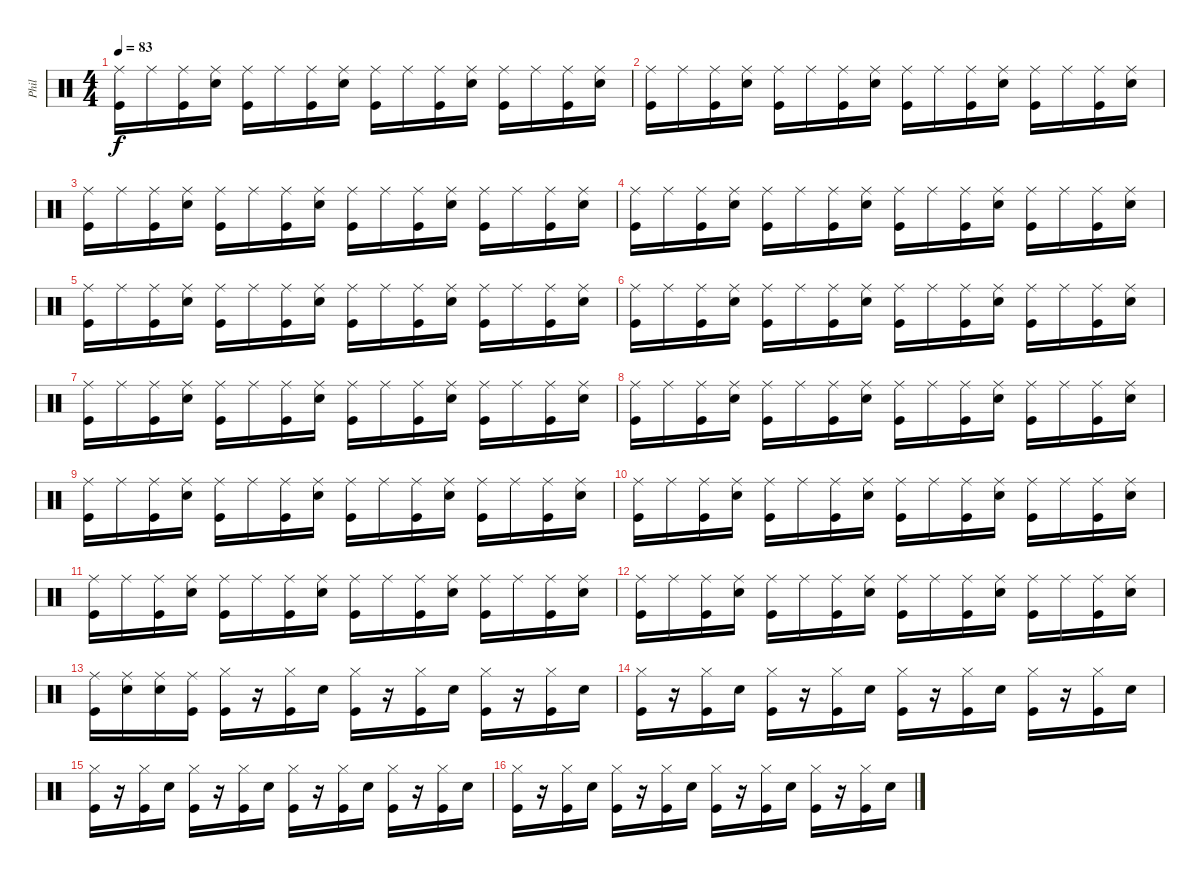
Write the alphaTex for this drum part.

\track ("Phil" "Phil") {instrument percussion}
\staff {score}
\articulation defaults
\ts (4 4)
\tempo 83
\clef neutral
\ks c
("Ride (middle)" "Kick (hit)").16{dy f} "Ride (middle)".16 ("Ride (middle)" "Kick (hit)").16 ("Ride (middle)" "Snare (hit) 2").16 ("Ride (middle)" "Kick (hit)").16 "Ride (middle)".16 ("Ride (middle)" "Kick (hit)").16 ("Ride (middle)" "Snare (hit) 2").16 ("Ride (middle)" "Kick (hit)").16 "Ride (middle)".16 ("Ride (middle)" "Kick (hit)").16 ("Ride (middle)" "Snare (hit) 2").16 ("Ride (middle)" "Kick (hit)").16 "Ride (middle)".16 ("Ride (middle)" "Kick (hit)").16 ("Ride (middle)" "Snare (hit) 2").16 |
("Ride (middle)" "Kick (hit)").16 "Ride (middle)".16 ("Ride (middle)" "Kick (hit)").16 ("Ride (middle)" "Snare (hit) 2").16 ("Ride (middle)" "Kick (hit)").16 "Ride (middle)".16 ("Ride (middle)" "Kick (hit)").16 ("Ride (middle)" "Snare (hit) 2").16 ("Ride (middle)" "Kick (hit)").16 "Ride (middle)".16 ("Ride (middle)" "Kick (hit)").16 ("Ride (middle)" "Snare (hit) 2").16 ("Ride (middle)" "Kick (hit)").16 "Ride (middle)".16 ("Ride (middle)" "Kick (hit)").16 ("Ride (middle)" "Snare (hit) 2").16 |
("Ride (middle)" "Kick (hit)").16 "Ride (middle)".16 ("Ride (middle)" "Kick (hit)").16 ("Ride (middle)" "Snare (hit) 2").16 ("Ride (middle)" "Kick (hit)").16 "Ride (middle)".16 ("Ride (middle)" "Kick (hit)").16 ("Ride (middle)" "Snare (hit) 2").16 ("Ride (middle)" "Kick (hit)").16 "Ride (middle)".16 ("Ride (middle)" "Kick (hit)").16 ("Ride (middle)" "Snare (hit) 2").16 ("Ride (middle)" "Kick (hit)").16 "Ride (middle)".16 ("Ride (middle)" "Kick (hit)").16 ("Ride (middle)" "Snare (hit) 2").16 |
("Ride (middle)" "Kick (hit)").16 "Ride (middle)".16 ("Ride (middle)" "Kick (hit)").16 ("Ride (middle)" "Snare (hit) 2").16 ("Ride (middle)" "Kick (hit)").16 "Ride (middle)".16 ("Ride (middle)" "Kick (hit)").16 ("Ride (middle)" "Snare (hit) 2").16 ("Ride (middle)" "Kick (hit)").16 "Ride (middle)".16 ("Ride (middle)" "Kick (hit)").16 ("Ride (middle)" "Snare (hit) 2").16 ("Ride (middle)" "Kick (hit)").16 "Ride (middle)".16 ("Ride (middle)" "Kick (hit)").16 ("Ride (middle)" "Snare (hit) 2").16 |
("Ride (middle)" "Kick (hit)").16 "Ride (middle)".16 ("Ride (middle)" "Kick (hit)").16 ("Ride (middle)" "Snare (hit) 2").16 ("Ride (middle)" "Kick (hit)").16 "Ride (middle)".16 ("Ride (middle)" "Kick (hit)").16 ("Ride (middle)" "Snare (hit) 2").16 ("Ride (middle)" "Kick (hit)").16 "Ride (middle)".16 ("Ride (middle)" "Kick (hit)").16 ("Ride (middle)" "Snare (hit) 2").16 ("Ride (middle)" "Kick (hit)").16 "Ride (middle)".16 ("Ride (middle)" "Kick (hit)").16 ("Ride (middle)" "Snare (hit) 2").16 |
("Ride (middle)" "Kick (hit)").16 "Ride (middle)".16 ("Ride (middle)" "Kick (hit)").16 ("Ride (middle)" "Snare (hit) 2").16 ("Ride (middle)" "Kick (hit)").16 "Ride (middle)".16 ("Ride (middle)" "Kick (hit)").16 ("Ride (middle)" "Snare (hit) 2").16 ("Ride (middle)" "Kick (hit)").16 "Ride (middle)".16 ("Ride (middle)" "Kick (hit)").16 ("Ride (middle)" "Snare (hit) 2").16 ("Ride (middle)" "Kick (hit)").16 "Ride (middle)".16 ("Ride (middle)" "Kick (hit)").16 ("Ride (middle)" "Snare (hit) 2").16 |
("Ride (middle)" "Kick (hit)").16 "Ride (middle)".16 ("Ride (middle)" "Kick (hit)").16 ("Ride (middle)" "Snare (hit) 2").16 ("Ride (middle)" "Kick (hit)").16 "Ride (middle)".16 ("Ride (middle)" "Kick (hit)").16 ("Ride (middle)" "Snare (hit) 2").16 ("Ride (middle)" "Kick (hit)").16 "Ride (middle)".16 ("Ride (middle)" "Kick (hit)").16 ("Ride (middle)" "Snare (hit) 2").16 ("Ride (middle)" "Kick (hit)").16 "Ride (middle)".16 ("Ride (middle)" "Kick (hit)").16 ("Ride (middle)" "Snare (hit) 2").16 |
("Ride (middle)" "Kick (hit)").16 "Ride (middle)".16 ("Ride (middle)" "Kick (hit)").16 ("Ride (middle)" "Snare (hit) 2").16 ("Ride (middle)" "Kick (hit)").16 "Ride (middle)".16 ("Ride (middle)" "Kick (hit)").16 ("Ride (middle)" "Snare (hit) 2").16 ("Ride (middle)" "Kick (hit)").16 "Ride (middle)".16 ("Ride (middle)" "Kick (hit)").16 ("Ride (middle)" "Snare (hit) 2").16 ("Ride (middle)" "Kick (hit)").16 "Ride (middle)".16 ("Ride (middle)" "Kick (hit)").16 ("Ride (middle)" "Snare (hit) 2").16 |
("Ride (middle)" "Kick (hit)").16 "Ride (middle)".16 ("Ride (middle)" "Kick (hit)").16 ("Ride (middle)" "Snare (hit) 2").16 ("Ride (middle)" "Kick (hit)").16 "Ride (middle)".16 ("Ride (middle)" "Kick (hit)").16 ("Ride (middle)" "Snare (hit) 2").16 ("Ride (middle)" "Kick (hit)").16 "Ride (middle)".16 ("Ride (middle)" "Kick (hit)").16 ("Ride (middle)" "Snare (hit) 2").16 ("Ride (middle)" "Kick (hit)").16 "Ride (middle)".16 ("Ride (middle)" "Kick (hit)").16 ("Ride (middle)" "Snare (hit) 2").16 |
("Ride (middle)" "Kick (hit)").16 "Ride (middle)".16 ("Ride (middle)" "Kick (hit)").16 ("Ride (middle)" "Snare (hit) 2").16 ("Ride (middle)" "Kick (hit)").16 "Ride (middle)".16 ("Ride (middle)" "Kick (hit)").16 ("Ride (middle)" "Snare (hit) 2").16 ("Ride (middle)" "Kick (hit)").16 "Ride (middle)".16 ("Ride (middle)" "Kick (hit)").16 ("Ride (middle)" "Snare (hit) 2").16 ("Ride (middle)" "Kick (hit)").16 "Ride (middle)".16 ("Ride (middle)" "Kick (hit)").16 ("Ride (middle)" "Snare (hit) 2").16 |
("Ride (middle)" "Kick (hit)").16 "Ride (middle)".16 ("Ride (middle)" "Kick (hit)").16 ("Ride (middle)" "Snare (hit) 2").16 ("Ride (middle)" "Kick (hit)").16 "Ride (middle)".16 ("Ride (middle)" "Kick (hit)").16 ("Ride (middle)" "Snare (hit) 2").16 ("Ride (middle)" "Kick (hit)").16 "Ride (middle)".16 ("Ride (middle)" "Kick (hit)").16 ("Ride (middle)" "Snare (hit) 2").16 ("Ride (middle)" "Kick (hit)").16 "Ride (middle)".16 ("Ride (middle)" "Kick (hit)").16 ("Ride (middle)" "Snare (hit) 2").16 |
("Ride (middle)" "Kick (hit)").16 "Ride (middle)".16 ("Ride (middle)" "Kick (hit)").16 ("Ride (middle)" "Snare (hit) 2").16 ("Ride (middle)" "Kick (hit)").16 "Ride (middle)".16 ("Ride (middle)" "Kick (hit)").16 ("Ride (middle)" "Snare (hit) 2").16 ("Ride (middle)" "Kick (hit)").16 "Ride (middle)".16 ("Ride (middle)" "Kick (hit)").16 ("Ride (middle)" "Snare (hit) 2").16 ("Ride (middle)" "Kick (hit)").16 "Ride (middle)".16 ("Ride (middle)" "Kick (hit)").16 ("Ride (middle)" "Snare (hit) 2").16 |
("Kick (hit)" "Ride (middle)").16 ("Snare (hit) 2" "Ride (middle)").16 ("Snare (hit) 2" "Ride (middle)").16 ("Kick (hit)" "Ride (middle)").16 ("Hi-Hat (closed)" "Kick (hit)").16 r.16 ("Hi-Hat (closed)" "Kick (hit)").16 "Snare (hit) 2".16 ("Hi-Hat (closed)" "Kick (hit)").16 r.16 ("Hi-Hat (closed)" "Kick (hit)").16 "Snare (hit) 2".16 ("Hi-Hat (closed)" "Kick (hit)").16 r.16 ("Hi-Hat (closed)" "Kick (hit)").16 "Snare (hit) 2".16 |
("Hi-Hat (closed)" "Kick (hit)").16 r.16 ("Hi-Hat (closed)" "Kick (hit)").16 "Snare (hit) 2".16 ("Hi-Hat (closed)" "Kick (hit)").16 r.16 ("Hi-Hat (closed)" "Kick (hit)").16 "Snare (hit) 2".16 ("Hi-Hat (closed)" "Kick (hit)").16 r.16 ("Hi-Hat (closed)" "Kick (hit)").16 "Snare (hit) 2".16 ("Hi-Hat (closed)" "Kick (hit)").16 r.16 ("Hi-Hat (closed)" "Kick (hit)").16 "Snare (hit) 2".16 |
("Hi-Hat (closed)" "Kick (hit)").16 r.16 ("Hi-Hat (closed)" "Kick (hit)").16 "Snare (hit) 2".16 ("Hi-Hat (closed)" "Kick (hit)").16 r.16 ("Hi-Hat (closed)" "Kick (hit)").16 "Snare (hit) 2".16 ("Hi-Hat (closed)" "Kick (hit)").16 r.16 ("Hi-Hat (closed)" "Kick (hit)").16 "Snare (hit) 2".16 ("Hi-Hat (closed)" "Kick (hit)").16 r.16 ("Hi-Hat (closed)" "Kick (hit)").16 "Snare (hit) 2".16 |
("Hi-Hat (closed)" "Kick (hit)").16 r.16 ("Hi-Hat (closed)" "Kick (hit)").16 "Snare (hit) 2".16 ("Hi-Hat (closed)" "Kick (hit)").16 r.16 ("Hi-Hat (closed)" "Kick (hit)").16 "Snare (hit) 2".16 ("Hi-Hat (closed)" "Kick (hit)").16 r.16 ("Hi-Hat (closed)" "Kick (hit)").16 "Snare (hit) 2".16 ("Hi-Hat (closed)" "Kick (hit)").16 r.16 ("Hi-Hat (closed)" "Kick (hit)").16 "Snare (hit) 2".16
